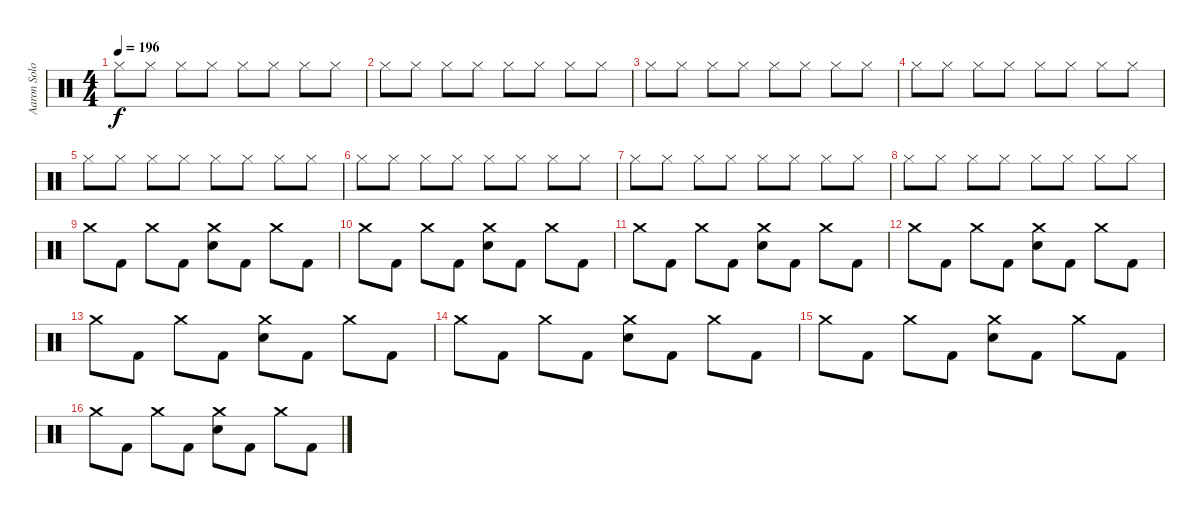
\track ("Aaron Solowoniuk" "Aaron Solo") {instrument percussion}
\staff {score}
\articulation defaults
\ts (4 4)
\tempo 196
\clef neutral
\ks c "Hi-Hat (closed)".8{dy f} "Hi-Hat (closed)".8 "Hi-Hat (closed)".8 "Hi-Hat (closed)".8 "Hi-Hat (closed)".8 "Hi-Hat (closed)".8 "Hi-Hat (closed)".8 "Hi-Hat (closed)".8
|
"Hi-Hat (closed)".8 "Hi-Hat (closed)".8 "Hi-Hat (closed)".8 "Hi-Hat (closed)".8 "Hi-Hat (closed)".8 "Hi-Hat (closed)".8 "Hi-Hat (closed)".8 "Hi-Hat (closed)".8 |
"Hi-Hat (closed)".8 "Hi-Hat (closed)".8 "Hi-Hat (closed)".8 "Hi-Hat (closed)".8 "Hi-Hat (closed)".8 "Hi-Hat (closed)".8 "Hi-Hat (closed)".8 "Hi-Hat (closed)".8 |
"Hi-Hat (closed)".8 "Hi-Hat (closed)".8 "Hi-Hat (closed)".8 "Hi-Hat (closed)".8 "Hi-Hat (closed)".8 "Hi-Hat (closed)".8 "Hi-Hat (closed)".8 "Hi-Hat (closed)".8 |
"Hi-Hat (closed)".8 "Hi-Hat (closed)".8 "Hi-Hat (closed)".8 "Hi-Hat (closed)".8 "Hi-Hat (closed)".8 "Hi-Hat (closed)".8 "Hi-Hat (closed)".8 "Hi-Hat (closed)".8 |
"Hi-Hat (closed)".8 "Hi-Hat (closed)".8 "Hi-Hat (closed)".8 "Hi-Hat (closed)".8 "Hi-Hat (closed)".8 "Hi-Hat (closed)".8 "Hi-Hat (closed)".8 "Hi-Hat (closed)".8 |
"Hi-Hat (closed)".8 "Hi-Hat (closed)".8 "Hi-Hat (closed)".8 "Hi-Hat (closed)".8 "Hi-Hat (closed)".8 "Hi-Hat (closed)".8 "Hi-Hat (closed)".8 "Hi-Hat (closed)".8 |
"Hi-Hat (closed)".8 "Hi-Hat (closed)".8 "Hi-Hat (closed)".8 "Hi-Hat (closed)".8 "Hi-Hat (closed)".8 "Hi-Hat (closed)".8 "Hi-Hat (closed)".8 "Hi-Hat (closed)".8 |
"Crash medium (hit)".8 "Kick (hit) 2".8 "Crash medium (hit)".8 "Kick (hit) 2".8 ("Crash medium (hit)" "Electric Snare (hit)").8 "Kick (hit) 2".8 "Crash medium (hit)".8 "Kick (hit) 2".8 |
"Crash medium (hit)".8 "Kick (hit) 2".8 "Crash medium (hit)".8 "Kick (hit) 2".8 ("Crash medium (hit)" "Electric Snare (hit)").8 "Kick (hit) 2".8 "Crash medium (hit)".8 "Kick (hit) 2".8 |
"Crash medium (hit)".8 "Kick (hit) 2".8 "Crash medium (hit)".8 "Kick (hit) 2".8 ("Crash medium (hit)" "Electric Snare (hit)").8 "Kick (hit) 2".8 "Crash medium (hit)".8 "Kick (hit) 2".8 |
"Crash medium (hit)".8 "Kick (hit) 2".8 "Crash medium (hit)".8 "Kick (hit) 2".8 ("Crash medium (hit)" "Electric Snare (hit)").8 "Kick (hit) 2".8 "Crash medium (hit)".8 "Kick (hit) 2".8 |
"Crash medium (hit)".8 "Kick (hit) 2".8 "Crash medium (hit)".8 "Kick (hit) 2".8 ("Crash medium (hit)" "Electric Snare (hit)").8 "Kick (hit) 2".8 "Crash medium (hit)".8 "Kick (hit) 2".8 |
"Crash medium (hit)".8 "Kick (hit) 2".8 "Crash medium (hit)".8 "Kick (hit) 2".8 ("Crash medium (hit)" "Electric Snare (hit)").8 "Kick (hit) 2".8 "Crash medium (hit)".8 "Kick (hit) 2".8 |
"Crash medium (hit)".8 "Kick (hit) 2".8 "Crash medium (hit)".8 "Kick (hit) 2".8 ("Crash medium (hit)" "Electric Snare (hit)").8 "Kick (hit) 2".8 "Crash medium (hit)".8 "Kick (hit) 2".8 |
"Crash medium (hit)".8 "Kick (hit) 2".8 "Crash medium (hit)".8 "Kick (hit) 2".8 ("Crash medium (hit)" "Electric Snare (hit)").8 "Kick (hit) 2".8 "Crash medium (hit)".8 "Kick (hit) 2".8
